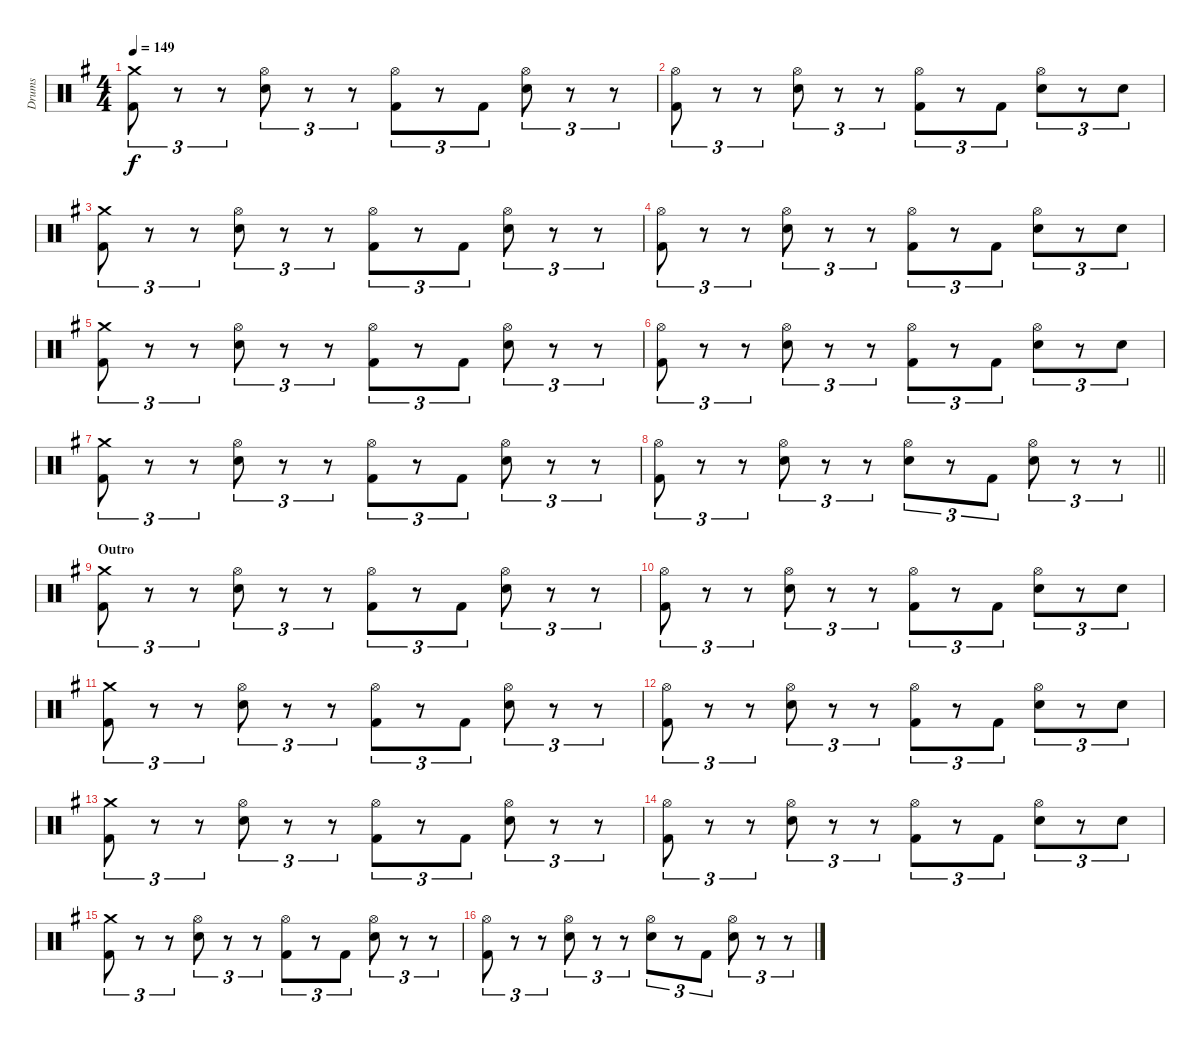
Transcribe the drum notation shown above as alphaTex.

\track ("Drums" "Drums") {instrument percussion}
\staff {score}
\articulation defaults
\ts (4 4)
\tempo 149
\clef neutral
\ks g
("Crash medium (hit)" "Kick (hit) 2").8{tu (3 2) dy f} r.8{tu (3 2)} r.8{tu (3 2)} ("Hi-Hat (open)" "Electric Snare (hit)").8{tu (3 2)} r.8{tu (3 2)} r.8{tu (3 2)} ("Hi-Hat (open)" "Kick (hit) 2").8{tu (3 2)} r.8{tu (3 2)} "Kick (hit) 2".8{tu (3 2)} ("Hi-Hat (open)" "Electric Snare (hit)").8{tu (3 2)} r.8{tu (3 2)} r.8{tu (3 2)} |
("Hi-Hat (open)" "Kick (hit) 2").8{tu (3 2)} r.8{tu (3 2)} r.8{tu (3 2)} ("Hi-Hat (open)" "Electric Snare (hit)").8{tu (3 2)} r.8{tu (3 2)} r.8{tu (3 2)} ("Hi-Hat (open)" "Kick (hit) 2").8{tu (3 2)} r.8{tu (3 2)} "Kick (hit) 2".8{tu (3 2)} ("Hi-Hat (open)" "Electric Snare (hit)").8{tu (3 2)} r.8{tu (3 2)} "Electric Snare (hit)".8{tu (3 2)} |
("Crash medium (hit)" "Kick (hit) 2").8{tu (3 2)} r.8{tu (3 2)} r.8{tu (3 2)} ("Hi-Hat (open)" "Electric Snare (hit)").8{tu (3 2)} r.8{tu (3 2)} r.8{tu (3 2)} ("Hi-Hat (open)" "Kick (hit) 2").8{tu (3 2)} r.8{tu (3 2)} "Kick (hit) 2".8{tu (3 2)} ("Hi-Hat (open)" "Electric Snare (hit)").8{tu (3 2)} r.8{tu (3 2)} r.8{tu (3 2)} |
("Hi-Hat (open)" "Kick (hit) 2").8{tu (3 2)} r.8{tu (3 2)} r.8{tu (3 2)} ("Hi-Hat (open)" "Electric Snare (hit)").8{tu (3 2)} r.8{tu (3 2)} r.8{tu (3 2)} ("Hi-Hat (open)" "Kick (hit) 2").8{tu (3 2)} r.8{tu (3 2)} "Kick (hit) 2".8{tu (3 2)} ("Hi-Hat (open)" "Electric Snare (hit)").8{tu (3 2)} r.8{tu (3 2)} "Electric Snare (hit)".8{tu (3 2)} |
("Crash medium (hit)" "Kick (hit) 2").8{tu (3 2)} r.8{tu (3 2)} r.8{tu (3 2)} ("Hi-Hat (open)" "Electric Snare (hit)").8{tu (3 2)} r.8{tu (3 2)} r.8{tu (3 2)} ("Hi-Hat (open)" "Kick (hit) 2").8{tu (3 2)} r.8{tu (3 2)} "Kick (hit) 2".8{tu (3 2)} ("Hi-Hat (open)" "Electric Snare (hit)").8{tu (3 2)} r.8{tu (3 2)} r.8{tu (3 2)} |
("Hi-Hat (open)" "Kick (hit) 2").8{tu (3 2)} r.8{tu (3 2)} r.8{tu (3 2)} ("Hi-Hat (open)" "Electric Snare (hit)").8{tu (3 2)} r.8{tu (3 2)} r.8{tu (3 2)} ("Hi-Hat (open)" "Kick (hit) 2").8{tu (3 2)} r.8{tu (3 2)} "Kick (hit) 2".8{tu (3 2)} ("Hi-Hat (open)" "Electric Snare (hit)").8{tu (3 2)} r.8{tu (3 2)} "Electric Snare (hit)".8{tu (3 2)} |
("Crash medium (hit)" "Kick (hit) 2").8{tu (3 2)} r.8{tu (3 2)} r.8{tu (3 2)} ("Hi-Hat (open)" "Electric Snare (hit)").8{tu (3 2)} r.8{tu (3 2)} r.8{tu (3 2)} ("Hi-Hat (open)" "Kick (hit) 2").8{tu (3 2)} r.8{tu (3 2)} "Kick (hit) 2".8{tu (3 2)} ("Hi-Hat (open)" "Electric Snare (hit)").8{tu (3 2)} r.8{tu (3 2)} r.8{tu (3 2)} |
\barLineRight lightlight
("Hi-Hat (open)" "Kick (hit) 2").8{tu (3 2)} r.8{tu (3 2)} r.8{tu (3 2)} ("Hi-Hat (open)" "Electric Snare (hit)").8{tu (3 2)} r.8{tu (3 2)} r.8{tu (3 2)} ("Hi-Hat (open)" "Electric Snare (hit)").8{tu (3 2)} r.8{tu (3 2)} "Kick (hit) 2".8{tu (3 2)} ("Hi-Hat (open)" "Electric Snare (hit)").8{tu (3 2)} r.8{tu (3 2)} r.8{tu (3 2)} |
\section ("" "Outro")
("Crash medium (hit)" "Kick (hit) 2").8{tu (3 2)} r.8{tu (3 2)} r.8{tu (3 2)} ("Hi-Hat (open)" "Electric Snare (hit)").8{tu (3 2)} r.8{tu (3 2)} r.8{tu (3 2)} ("Hi-Hat (open)" "Kick (hit) 2").8{tu (3 2)} r.8{tu (3 2)} "Kick (hit) 2".8{tu (3 2)} ("Hi-Hat (open)" "Electric Snare (hit)").8{tu (3 2)} r.8{tu (3 2)} r.8{tu (3 2)} |
("Hi-Hat (open)" "Kick (hit) 2").8{tu (3 2)} r.8{tu (3 2)} r.8{tu (3 2)} ("Hi-Hat (open)" "Electric Snare (hit)").8{tu (3 2)} r.8{tu (3 2)} r.8{tu (3 2)} ("Hi-Hat (open)" "Kick (hit) 2").8{tu (3 2)} r.8{tu (3 2)} "Kick (hit) 2".8{tu (3 2)} ("Hi-Hat (open)" "Electric Snare (hit)").8{tu (3 2)} r.8{tu (3 2)} "Electric Snare (hit)".8{tu (3 2)} |
("Crash medium (hit)" "Kick (hit) 2").8{tu (3 2)} r.8{tu (3 2)} r.8{tu (3 2)} ("Hi-Hat (open)" "Electric Snare (hit)").8{tu (3 2)} r.8{tu (3 2)} r.8{tu (3 2)} ("Hi-Hat (open)" "Kick (hit) 2").8{tu (3 2)} r.8{tu (3 2)} "Kick (hit) 2".8{tu (3 2)} ("Hi-Hat (open)" "Electric Snare (hit)").8{tu (3 2)} r.8{tu (3 2)} r.8{tu (3 2)} |
("Hi-Hat (open)" "Kick (hit) 2").8{tu (3 2)} r.8{tu (3 2)} r.8{tu (3 2)} ("Hi-Hat (open)" "Electric Snare (hit)").8{tu (3 2)} r.8{tu (3 2)} r.8{tu (3 2)} ("Hi-Hat (open)" "Kick (hit) 2").8{tu (3 2)} r.8{tu (3 2)} "Kick (hit) 2".8{tu (3 2)} ("Hi-Hat (open)" "Electric Snare (hit)").8{tu (3 2)} r.8{tu (3 2)} "Electric Snare (hit)".8{tu (3 2)} |
("Crash medium (hit)" "Kick (hit) 2").8{tu (3 2)} r.8{tu (3 2)} r.8{tu (3 2)} ("Hi-Hat (open)" "Electric Snare (hit)").8{tu (3 2)} r.8{tu (3 2)} r.8{tu (3 2)} ("Hi-Hat (open)" "Kick (hit) 2").8{tu (3 2)} r.8{tu (3 2)} "Kick (hit) 2".8{tu (3 2)} ("Hi-Hat (open)" "Electric Snare (hit)").8{tu (3 2)} r.8{tu (3 2)} r.8{tu (3 2)} |
("Hi-Hat (open)" "Kick (hit) 2").8{tu (3 2)} r.8{tu (3 2)} r.8{tu (3 2)} ("Hi-Hat (open)" "Electric Snare (hit)").8{tu (3 2)} r.8{tu (3 2)} r.8{tu (3 2)} ("Hi-Hat (open)" "Kick (hit) 2").8{tu (3 2)} r.8{tu (3 2)} "Kick (hit) 2".8{tu (3 2)} ("Hi-Hat (open)" "Electric Snare (hit)").8{tu (3 2)} r.8{tu (3 2)} "Electric Snare (hit)".8{tu (3 2)} |
("Crash medium (hit)" "Kick (hit) 2").8{tu (3 2)} r.8{tu (3 2)} r.8{tu (3 2)} ("Hi-Hat (open)" "Electric Snare (hit)").8{tu (3 2)} r.8{tu (3 2)} r.8{tu (3 2)} ("Hi-Hat (open)" "Kick (hit) 2").8{tu (3 2)} r.8{tu (3 2)} "Kick (hit) 2".8{tu (3 2)} ("Hi-Hat (open)" "Electric Snare (hit)").8{tu (3 2)} r.8{tu (3 2)} r.8{tu (3 2)} |
("Hi-Hat (open)" "Kick (hit) 2").8{tu (3 2)} r.8{tu (3 2)} r.8{tu (3 2)} ("Hi-Hat (open)" "Electric Snare (hit)").8{tu (3 2)} r.8{tu (3 2)} r.8{tu (3 2)} ("Hi-Hat (open)" "Electric Snare (hit)").8{tu (3 2)} r.8{tu (3 2)} "Kick (hit) 2".8{tu (3 2)} ("Hi-Hat (open)" "Electric Snare (hit)").8{tu (3 2)} r.8{tu (3 2)} r.8{tu (3 2)}
